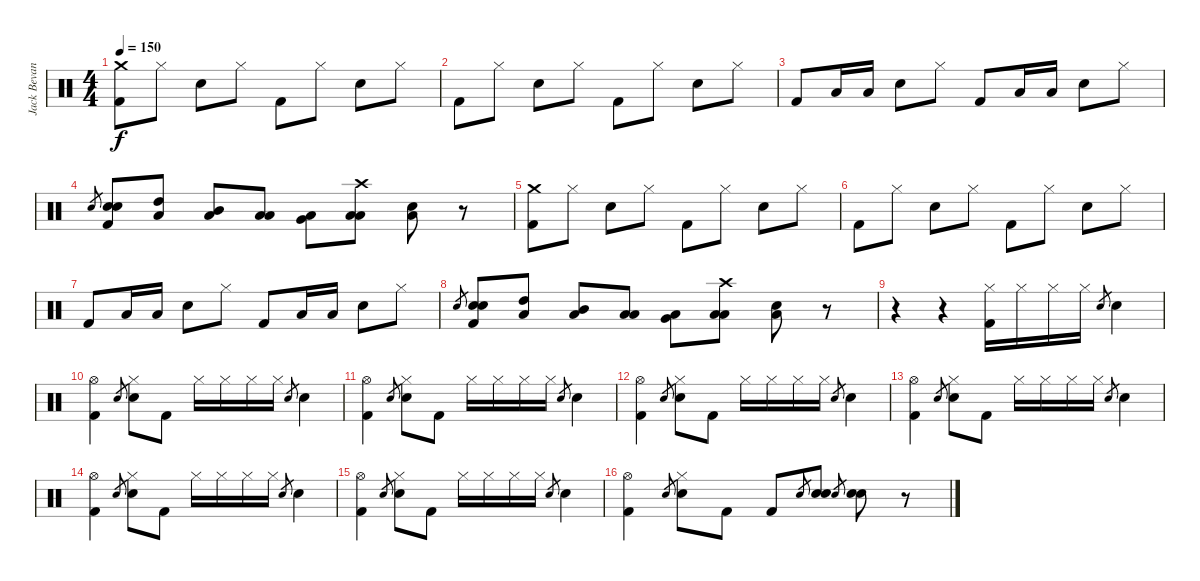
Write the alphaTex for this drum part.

\track ("Jack Bevan (Percussion)" "Jack Bevan") {instrument percussion bank 255}
\staff {score}
\articulation defaults
\ts (4 4)
\tempo 150
\clef neutral
\ks c
("Crash medium (hit)" "Kick (hit) 2").8{dy f} "Hi-Hat (closed)".8 "Snare (hit) 2".8 "Hi-Hat (closed)".8 "Kick (hit) 2".8 "Hi-Hat (closed)".8 "Snare (hit) 2".8 "Hi-Hat (closed)".8 |
"Kick (hit) 2".8 "Hi-Hat (closed)".8 "Snare (hit) 2".8 "Hi-Hat (closed)".8 "Kick (hit) 2".8 "Hi-Hat (closed)".8 "Snare (hit) 2".8 "Hi-Hat (closed)".8 |
"Kick (hit) 2".8 "Low Tom (hit)".16 "Low Tom (hit)".16 "Snare (hit) 2".8 "Hi-Hat (closed)".8 "Kick (hit) 2".8 "Low Tom (hit)".16 "Low Tom (hit)".16 "Snare (hit) 2".8 "Hi-Hat (closed)".8 |
"Snare (hit) 2".8{gr} ("Snare (hit) 2" "Snare (hit) 2" "Kick (hit) 2").8 ("High Tom (hit)" "Low Floor Tom (hit)").8 ("Mid Tom (hit)" "Low Floor Tom (hit)").8 ("Low Tom (hit)" "Low Floor Tom (hit)").8 ("Very Low Tom (hit)" "Low Floor Tom (hit)").8 ("Crash high (hit)" "Low Floor Tom (hit)" "Low Floor Tom (hit)").8 ("Snare (hit) 2" "Low Floor Tom (hit)").8 r.8 |
("Crash medium (hit)" "Kick (hit) 2").8 "Hi-Hat (closed)".8 "Snare (hit) 2".8 "Hi-Hat (closed)".8 "Kick (hit) 2".8 "Hi-Hat (closed)".8 "Snare (hit) 2".8 "Hi-Hat (closed)".8 |
"Kick (hit) 2".8 "Hi-Hat (closed)".8 "Snare (hit) 2".8 "Hi-Hat (closed)".8 "Kick (hit) 2".8 "Hi-Hat (closed)".8 "Snare (hit) 2".8 "Hi-Hat (closed)".8 |
"Kick (hit) 2".8 "Low Tom (hit)".16 "Low Tom (hit)".16 "Snare (hit) 2".8 "Hi-Hat (closed)".8 "Kick (hit) 2".8 "Low Tom (hit)".16 "Low Tom (hit)".16 "Snare (hit) 2".8 "Hi-Hat (closed)".8 |
"Snare (hit) 2".8{gr} ("Snare (hit) 2" "Snare (hit) 2" "Kick (hit) 2").8 ("High Tom (hit)" "Low Floor Tom (hit)").8 ("Mid Tom (hit)" "Low Floor Tom (hit)").8 ("Low Tom (hit)" "Low Floor Tom (hit)").8 ("Very Low Tom (hit)" "Low Floor Tom (hit)").8 ("Crash high (hit)" "Low Floor Tom (hit)" "Low Floor Tom (hit)").8 ("Snare (hit) 2" "Low Floor Tom (hit)").8 r.8 |
r.4 r.4 ("Hi-Hat (closed)" "Kick (hit) 2").16 "Hi-Hat (closed)".16 "Hi-Hat (closed)".16 "Hi-Hat (closed)".16 "Snare (hit) 2".8{gr} "Snare (hit) 2".4 |
("Hi-Hat (open)" "Kick (hit) 2").4 "Snare (hit) 2".8{gr} ("Hi-Hat (closed)" "Snare (hit) 2").8 "Kick (hit) 2".8 "Hi-Hat (closed)".16 "Hi-Hat (closed)".16 "Hi-Hat (closed)".16 "Hi-Hat (closed)".16 "Snare (hit) 2".8{gr} "Snare (hit) 2".4 |
("Hi-Hat (open)" "Kick (hit) 2").4 "Snare (hit) 2".8{gr} ("Hi-Hat (closed)" "Snare (hit) 2").8 "Kick (hit) 2".8 "Hi-Hat (closed)".16 "Hi-Hat (closed)".16 "Hi-Hat (closed)".16 "Hi-Hat (closed)".16 "Snare (hit) 2".8{gr} "Snare (hit) 2".4 |
("Hi-Hat (open)" "Kick (hit) 2").4 "Snare (hit) 2".8{gr} ("Hi-Hat (closed)" "Snare (hit) 2").8 "Kick (hit) 2".8 "Hi-Hat (closed)".16 "Hi-Hat (closed)".16 "Hi-Hat (closed)".16 "Hi-Hat (closed)".16 "Snare (hit) 2".8{gr} "Snare (hit) 2".4 |
("Hi-Hat (open)" "Kick (hit) 2").4 "Snare (hit) 2".8{gr} ("Hi-Hat (closed)" "Snare (hit) 2").8 "Kick (hit) 2".8 "Hi-Hat (closed)".16 "Hi-Hat (closed)".16 "Hi-Hat (closed)".16 "Hi-Hat (closed)".16 "Snare (hit) 2".8{gr} "Snare (hit) 2".4 |
("Hi-Hat (open)" "Kick (hit) 2").4 "Snare (hit) 2".8{gr} ("Hi-Hat (closed)" "Snare (hit) 2").8 "Kick (hit) 2".8 "Hi-Hat (closed)".16 "Hi-Hat (closed)".16 "Hi-Hat (closed)".16 "Hi-Hat (closed)".16 "Snare (hit) 2".8{gr} "Snare (hit) 2".4 |
("Hi-Hat (open)" "Kick (hit) 2").4 "Snare (hit) 2".8{gr} ("Hi-Hat (closed)" "Snare (hit) 2").8 "Kick (hit) 2".8 "Hi-Hat (closed)".16 "Hi-Hat (closed)".16 "Hi-Hat (closed)".16 "Hi-Hat (closed)".16 "Snare (hit) 2".8{gr} "Snare (hit) 2".4 |
("Hi-Hat (open)" "Kick (hit) 2").4 "Snare (hit) 2".8{gr} ("Hi-Hat (closed)" "Snare (hit) 2").8 "Kick (hit) 2".8 "Kick (hit) 2".8 "Snare (hit) 2".8{gr} ("Snare (hit) 2" "Snare (hit) 2").8 "Snare (hit) 2".8{gr} ("Snare (hit) 2" "Snare (hit) 2").8 r.8
